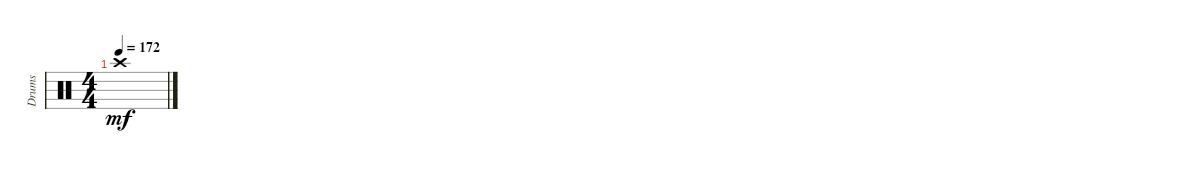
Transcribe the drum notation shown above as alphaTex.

\track ("Drums" "Drums") {instrument percussion}
\staff {score}
\articulation defaults
\ts (4 4)
\tempo 172
\clef neutral
\ks c "Crash high (hit)".1{dy mf}
